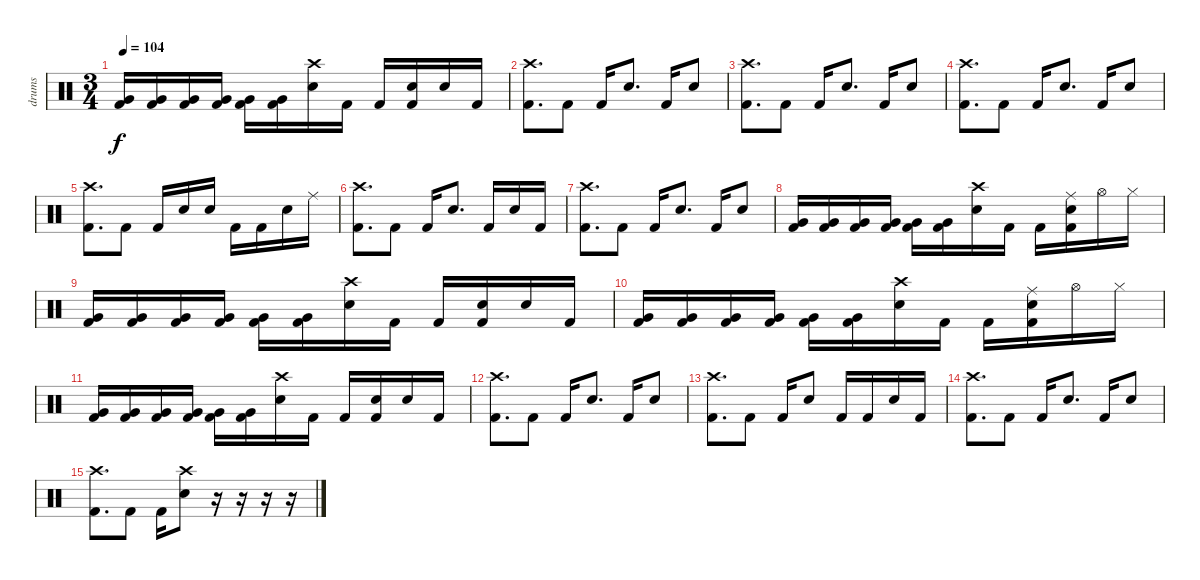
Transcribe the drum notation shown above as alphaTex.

\track ("drums" "drums") {instrument percussion}
\staff {score}
\articulation defaults
\ts (3 4)
\tempo 104
\clef neutral
\ks c
("Very Low Tom (hit)" "Kick (hit) 2").16{dy f} ("Very Low Tom (hit)" "Kick (hit) 2").16 ("Very Low Tom (hit)" "Kick (hit) 2").16 ("Very Low Tom (hit)" "Kick (hit) 2").16 ("Very Low Tom (hit)" "Kick (hit) 2").16 ("Very Low Tom (hit)" "Kick (hit) 2").16 ("Electric Snare (hit)" "Crash high (hit)").16 "Kick (hit) 2".16 "Kick (hit) 2".16 ("Electric Snare (hit)" "Kick (hit) 2").16 "Electric Snare (hit)".16 "Kick (hit) 2".16 |
("Crash high (hit)" "Kick (hit) 2").8{d} "Kick (hit) 2".8 "Kick (hit) 2".16 "Electric Snare (hit)".8{d} "Kick (hit) 2".16 "Electric Snare (hit)".8 |
("Crash high (hit)" "Kick (hit) 2").8{d} "Kick (hit) 2".8 "Kick (hit) 2".16 "Electric Snare (hit)".8{d} "Kick (hit) 2".16 "Electric Snare (hit)".8 |
("Crash high (hit)" "Kick (hit) 2").8{d} "Kick (hit) 2".8 "Kick (hit) 2".16 "Electric Snare (hit)".8{d} "Kick (hit) 2".16 "Electric Snare (hit)".8 |
("Crash high (hit)" "Kick (hit) 2").8{d} "Kick (hit) 2".8 "Kick (hit) 2".16 "Electric Snare (hit)".16 "Electric Snare (hit)".16 "Kick (hit) 2".16 "Kick (hit) 2".16 "Electric Snare (hit)".16 "Ride (middle)".16 |
("Crash high (hit)" "Kick (hit) 2").8{d} "Kick (hit) 2".8 "Kick (hit) 2".16 "Electric Snare (hit)".8{d} "Kick (hit) 2".16 "Electric Snare (hit)".16 "Kick (hit) 2".16 |
("Crash high (hit)" "Kick (hit) 2").8{d} "Kick (hit) 2".8 "Kick (hit) 2".16 "Electric Snare (hit)".8{d} "Kick (hit) 2".16 "Electric Snare (hit)".8 |
("Very Low Tom (hit)" "Kick (hit) 2").16 ("Very Low Tom (hit)" "Kick (hit) 2").16 ("Very Low Tom (hit)" "Kick (hit) 2").16 ("Very Low Tom (hit)" "Kick (hit) 2").16 ("Very Low Tom (hit)" "Kick (hit) 2").16 ("Very Low Tom (hit)" "Kick (hit) 2").16 ("Electric Snare (hit)" "Crash high (hit)").16 "Kick (hit) 2".16 "Kick (hit) 2".16 ("Electric Snare (hit)" "Ride (middle)" "Kick (hit) 2").16 "Hi-Hat (open)".16 "Hi-Hat (closed)".16 |
("Very Low Tom (hit)" "Kick (hit) 2").16 ("Very Low Tom (hit)" "Kick (hit) 2").16 ("Very Low Tom (hit)" "Kick (hit) 2").16 ("Very Low Tom (hit)" "Kick (hit) 2").16 ("Very Low Tom (hit)" "Kick (hit) 2").16 ("Very Low Tom (hit)" "Kick (hit) 2").16 ("Electric Snare (hit)" "Crash high (hit)").16 "Kick (hit) 2".16 "Kick (hit) 2".16 ("Electric Snare (hit)" "Kick (hit) 2").16 "Electric Snare (hit)".16 "Kick (hit) 2".16 |
("Very Low Tom (hit)" "Kick (hit) 2").16 ("Very Low Tom (hit)" "Kick (hit) 2").16 ("Very Low Tom (hit)" "Kick (hit) 2").16 ("Very Low Tom (hit)" "Kick (hit) 2").16 ("Very Low Tom (hit)" "Kick (hit) 2").16 ("Very Low Tom (hit)" "Kick (hit) 2").16 ("Electric Snare (hit)" "Crash high (hit)").16 "Kick (hit) 2".16 "Kick (hit) 2".16 ("Electric Snare (hit)" "Ride (middle)" "Kick (hit) 2").16 "Hi-Hat (open)".16 "Hi-Hat (closed)".16 |
("Very Low Tom (hit)" "Kick (hit) 2").16 ("Very Low Tom (hit)" "Kick (hit) 2").16 ("Very Low Tom (hit)" "Kick (hit) 2").16 ("Very Low Tom (hit)" "Kick (hit) 2").16 ("Very Low Tom (hit)" "Kick (hit) 2").16 ("Very Low Tom (hit)" "Kick (hit) 2").16 ("Electric Snare (hit)" "Crash high (hit)").16 "Kick (hit) 2".16 "Kick (hit) 2".16 ("Electric Snare (hit)" "Kick (hit) 2").16 "Electric Snare (hit)".16 "Kick (hit) 2".16 |
("Crash high (hit)" "Kick (hit) 2").8{d} "Kick (hit) 2".8 "Kick (hit) 2".16 "Electric Snare (hit)".8{d} "Kick (hit) 2".16 "Electric Snare (hit)".8 |
("Crash high (hit)" "Kick (hit) 2").8{d} "Kick (hit) 2".8 "Kick (hit) 2".16 "Electric Snare (hit)".8 "Kick (hit) 2".16 "Kick (hit) 2".16 "Electric Snare (hit)".16 "Kick (hit) 2".16 |
("Crash high (hit)" "Kick (hit) 2").8{d} "Kick (hit) 2".8 "Kick (hit) 2".16 "Electric Snare (hit)".8{d} "Kick (hit) 2".16 "Electric Snare (hit)".8 |
("Crash high (hit)" "Kick (hit) 2").8{d} "Kick (hit) 2".8 "Kick (hit) 2".16 ("Electric Snare (hit)" "Crash high (hit)").8 r.16 r.16 r.16 r.16
